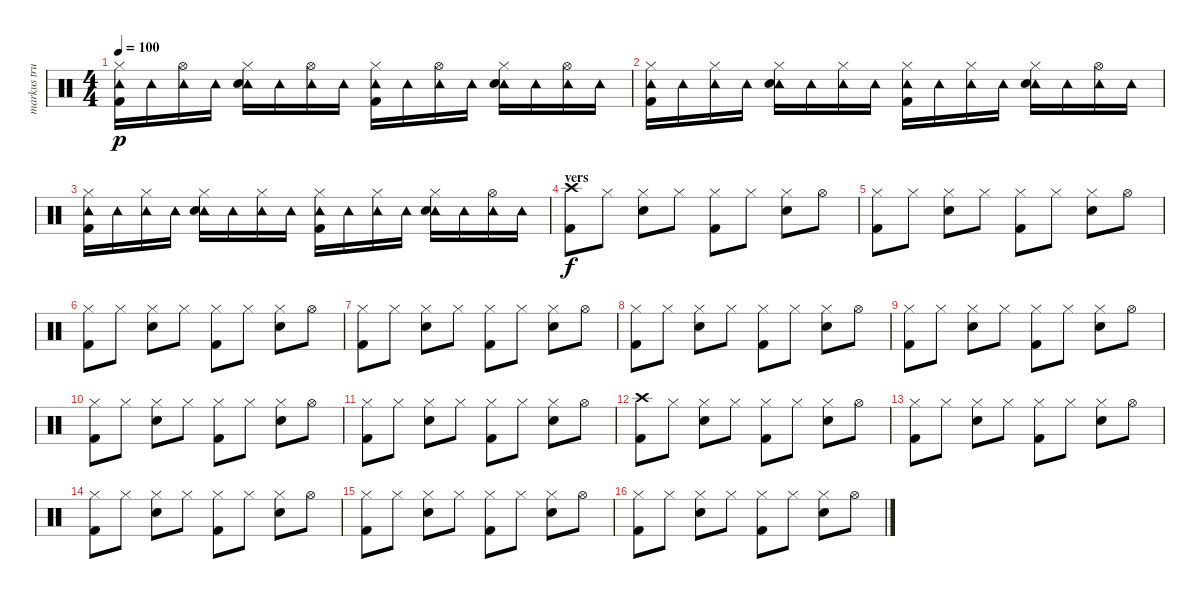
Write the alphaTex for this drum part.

\track ("markus trummor" "markus tru") {instrument percussion}
\staff {score}
\articulation defaults
\ts (4 4)
\tempo 100
\clef neutral
\ks c
("Tambourine (hit)" "Hi-Hat (closed)" "Kick (hit) 2").16{dy p} "Tambourine (hit)".16 ("Tambourine (hit)" "Hi-Hat (open)").16 "Tambourine (hit)".16 ("Tambourine (hit)" "Hi-Hat (closed)" "Snare (hit) 2").16 "Tambourine (hit)".16 ("Tambourine (hit)" "Hi-Hat (open)").16 "Tambourine (hit)".16 ("Tambourine (hit)" "Hi-Hat (closed)" "Kick (hit) 2").16 "Tambourine (hit)".16 ("Tambourine (hit)" "Hi-Hat (open)").16 "Tambourine (hit)".16 ("Tambourine (hit)" "Hi-Hat (closed)" "Snare (hit) 2").16 "Tambourine (hit)".16 ("Tambourine (hit)" "Hi-Hat (open)").16 "Tambourine (hit)".16 |
("Tambourine (hit)" "Hi-Hat (closed)" "Kick (hit) 2").16 "Tambourine (hit)".16 ("Tambourine (hit)" "Hi-Hat (closed)").16 "Tambourine (hit)".16 ("Tambourine (hit)" "Hi-Hat (closed)" "Snare (hit) 2").16 "Tambourine (hit)".16 ("Tambourine (hit)" "Hi-Hat (closed)").16 "Tambourine (hit)".16 ("Tambourine (hit)" "Hi-Hat (closed)" "Kick (hit) 2").16 "Tambourine (hit)".16 ("Tambourine (hit)" "Hi-Hat (closed)").16 "Tambourine (hit)".16 ("Tambourine (hit)" "Hi-Hat (closed)" "Snare (hit) 2").16 "Tambourine (hit)".16 ("Tambourine (hit)" "Hi-Hat (open)").16 "Tambourine (hit)".16 |
("Tambourine (hit)" "Hi-Hat (closed)" "Kick (hit) 2").16 "Tambourine (hit)".16 ("Tambourine (hit)" "Hi-Hat (closed)").16 "Tambourine (hit)".16 ("Tambourine (hit)" "Hi-Hat (closed)" "Snare (hit) 2").16 "Tambourine (hit)".16 ("Tambourine (hit)" "Hi-Hat (closed)").16 "Tambourine (hit)".16 ("Tambourine (hit)" "Hi-Hat (closed)" "Kick (hit) 2").16 "Tambourine (hit)".16 ("Tambourine (hit)" "Hi-Hat (closed)").16 "Tambourine (hit)".16 ("Tambourine (hit)" "Hi-Hat (closed)" "Snare (hit) 2").16 "Tambourine (hit)".16 ("Tambourine (hit)" "Hi-Hat (open)").16 "Tambourine (hit)".16 |
\section ("" "vers")
("Crash high (hit)" "Kick (hit) 2").8{dy f} "Hi-Hat (closed)".8 ("Hi-Hat (closed)" "Snare (hit) 2").8 "Hi-Hat (closed)".8 ("Hi-Hat (closed)" "Kick (hit) 2").8 "Hi-Hat (closed)".8 ("Hi-Hat (closed)" "Snare (hit) 2").8 "Hi-Hat (open)".8 |
("Hi-Hat (closed)" "Kick (hit) 2").8 "Hi-Hat (closed)".8 ("Hi-Hat (closed)" "Snare (hit) 2").8 "Hi-Hat (closed)".8 ("Hi-Hat (closed)" "Kick (hit) 2").8 "Hi-Hat (closed)".8 ("Hi-Hat (closed)" "Snare (hit) 2").8 "Hi-Hat (open)".8 |
("Hi-Hat (closed)" "Kick (hit) 2").8 "Hi-Hat (closed)".8 ("Hi-Hat (closed)" "Snare (hit) 2").8 "Hi-Hat (closed)".8 ("Hi-Hat (closed)" "Kick (hit) 2").8 "Hi-Hat (closed)".8 ("Hi-Hat (closed)" "Snare (hit) 2").8 "Hi-Hat (open)".8 |
("Hi-Hat (closed)" "Kick (hit) 2").8 "Hi-Hat (closed)".8 ("Hi-Hat (closed)" "Snare (hit) 2").8 "Hi-Hat (closed)".8 ("Hi-Hat (closed)" "Kick (hit) 2").8 "Hi-Hat (closed)".8 ("Hi-Hat (closed)" "Snare (hit) 2").8 "Hi-Hat (open)".8 |
("Hi-Hat (closed)" "Kick (hit) 2").8 "Hi-Hat (closed)".8 ("Hi-Hat (closed)" "Snare (hit) 2").8 "Hi-Hat (closed)".8 ("Hi-Hat (closed)" "Kick (hit) 2").8 "Hi-Hat (closed)".8 ("Hi-Hat (closed)" "Snare (hit) 2").8 "Hi-Hat (open)".8 |
("Hi-Hat (closed)" "Kick (hit) 2").8 "Hi-Hat (closed)".8 ("Hi-Hat (closed)" "Snare (hit) 2").8 "Hi-Hat (closed)".8 ("Hi-Hat (closed)" "Kick (hit) 2").8 "Hi-Hat (closed)".8 ("Hi-Hat (closed)" "Snare (hit) 2").8 "Hi-Hat (open)".8 |
("Hi-Hat (closed)" "Kick (hit) 2").8 "Hi-Hat (closed)".8 ("Hi-Hat (closed)" "Snare (hit) 2").8 "Hi-Hat (closed)".8 ("Hi-Hat (closed)" "Kick (hit) 2").8 "Hi-Hat (closed)".8 ("Hi-Hat (closed)" "Snare (hit) 2").8 "Hi-Hat (open)".8 |
("Hi-Hat (closed)" "Kick (hit) 2").8 "Hi-Hat (closed)".8 ("Hi-Hat (closed)" "Snare (hit) 2").8 "Hi-Hat (closed)".8 ("Hi-Hat (closed)" "Kick (hit) 2").8 "Hi-Hat (closed)".8 ("Hi-Hat (closed)" "Snare (hit) 2").8 "Hi-Hat (open)".8 |
("Crash high (hit)" "Kick (hit) 2").8 "Hi-Hat (closed)".8 ("Hi-Hat (closed)" "Snare (hit) 2").8 "Hi-Hat (closed)".8 ("Hi-Hat (closed)" "Kick (hit) 2").8 "Hi-Hat (closed)".8 ("Hi-Hat (closed)" "Snare (hit) 2").8 "Hi-Hat (open)".8 |
("Hi-Hat (closed)" "Kick (hit) 2").8 "Hi-Hat (closed)".8 ("Hi-Hat (closed)" "Snare (hit) 2").8 "Hi-Hat (closed)".8 ("Hi-Hat (closed)" "Kick (hit) 2").8 "Hi-Hat (closed)".8 ("Hi-Hat (closed)" "Snare (hit) 2").8 "Hi-Hat (open)".8 |
("Hi-Hat (closed)" "Kick (hit) 2").8 "Hi-Hat (closed)".8 ("Hi-Hat (closed)" "Snare (hit) 2").8 "Hi-Hat (closed)".8 ("Hi-Hat (closed)" "Kick (hit) 2").8 "Hi-Hat (closed)".8 ("Hi-Hat (closed)" "Snare (hit) 2").8 "Hi-Hat (open)".8 |
("Hi-Hat (closed)" "Kick (hit) 2").8 "Hi-Hat (closed)".8 ("Hi-Hat (closed)" "Snare (hit) 2").8 "Hi-Hat (closed)".8 ("Hi-Hat (closed)" "Kick (hit) 2").8 "Hi-Hat (closed)".8 ("Hi-Hat (closed)" "Snare (hit) 2").8 "Hi-Hat (open)".8 |
("Hi-Hat (closed)" "Kick (hit) 2").8 "Hi-Hat (closed)".8 ("Hi-Hat (closed)" "Snare (hit) 2").8 "Hi-Hat (closed)".8 ("Hi-Hat (closed)" "Kick (hit) 2").8 "Hi-Hat (closed)".8 ("Hi-Hat (closed)" "Snare (hit) 2").8 "Hi-Hat (open)".8
